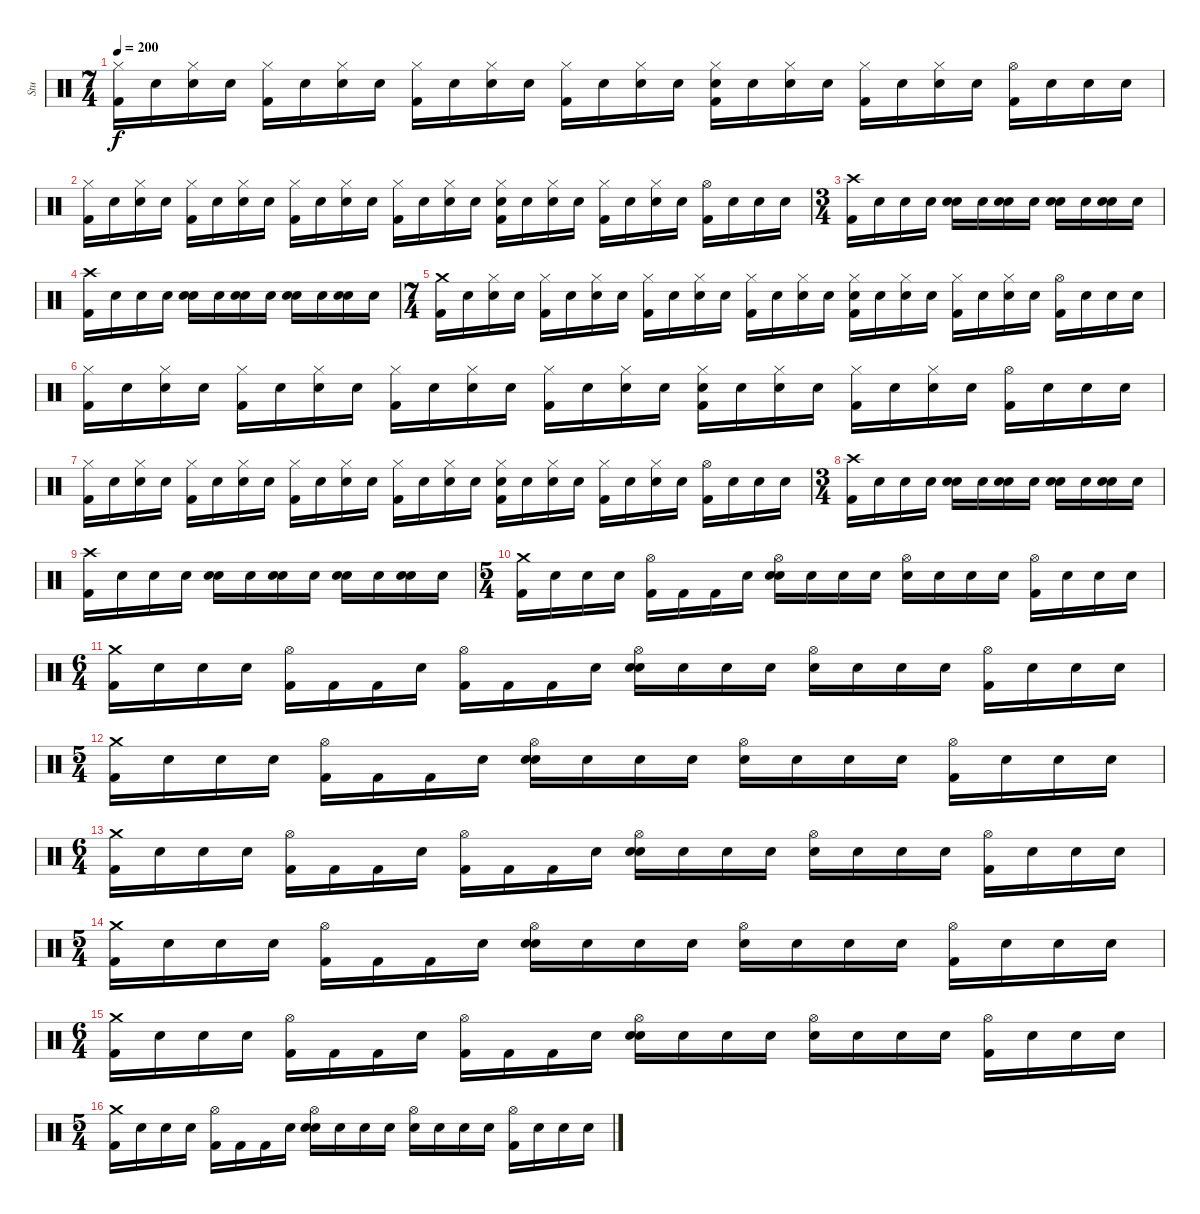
\track ("Stu" "Stu") {instrument percussion}
\staff {score}
\articulation defaults
\ts (7 4)
\tempo 200
\clef neutral
\ks c
("Hi-Hat (closed)" "Kick (hit) 2").16{dy f} "Snare (hit)"{x}.16 ("Hi-Hat (closed)" "Snare (hit)"{x}).16 "Snare (hit)"{x}.16 ("Hi-Hat (closed)" "Kick (hit) 2").16 "Snare (hit)"{x}.16 ("Hi-Hat (closed)" "Snare (hit)"{x}).16 "Snare (hit)"{x}.16 ("Hi-Hat (closed)" "Kick (hit) 2").16 "Snare (hit)"{x}.16 ("Hi-Hat (closed)" "Snare (hit)"{x}).16 "Snare (hit)"{x}.16 ("Hi-Hat (closed)" "Kick (hit) 2").16 "Snare (hit)"{x}.16 ("Hi-Hat (closed)" "Snare (hit)"{x}).16 "Snare (hit)"{x}.16 ("Hi-Hat (closed)" "Electric Snare (hit)" "Kick (hit) 2").16 "Snare (hit)"{x}.16 ("Hi-Hat (closed)" "Snare (hit)"{x}).16 "Snare (hit)"{x}.16 ("Hi-Hat (closed)" "Kick (hit) 2").16 "Snare (hit)"{x}.16 ("Hi-Hat (closed)" "Snare (hit)"{x}).16 "Snare (hit)"{x}.16 ("Hi-Hat (open)" "Kick (hit) 2").16 "Snare (hit)"{x}.16 "Snare (hit)"{x}.16 "Snare (hit)"{x}.16 |
("Hi-Hat (closed)" "Kick (hit) 2").16 "Snare (hit)"{x}.16 ("Hi-Hat (closed)" "Snare (hit)"{x}).16 "Snare (hit)"{x}.16 ("Hi-Hat (closed)" "Kick (hit) 2").16 "Snare (hit)"{x}.16 ("Hi-Hat (closed)" "Snare (hit)"{x}).16 "Snare (hit)"{x}.16 ("Hi-Hat (closed)" "Kick (hit) 2").16 "Snare (hit)"{x}.16 ("Hi-Hat (closed)" "Snare (hit)"{x}).16 "Snare (hit)"{x}.16 ("Hi-Hat (closed)" "Kick (hit) 2").16 "Snare (hit)"{x}.16 ("Hi-Hat (closed)" "Snare (hit)"{x}).16 "Snare (hit)"{x}.16 ("Hi-Hat (closed)" "Electric Snare (hit)" "Kick (hit) 2").16 "Snare (hit)"{x}.16 ("Hi-Hat (closed)" "Snare (hit)"{x}).16 "Snare (hit)"{x}.16 ("Hi-Hat (closed)" "Kick (hit) 2").16 "Snare (hit)"{x}.16 ("Hi-Hat (closed)" "Snare (hit)"{x}).16 "Snare (hit)"{x}.16 ("Hi-Hat (open)" "Kick (hit) 2").16 "Snare (hit)"{x}.16 "Snare (hit)"{x}.16 "Snare (hit)"{x}.16 |
\ts (3 4)
("Crash high (hit)" "Kick (hit) 2").16 "Snare (hit)"{x}.16 "Snare (hit)"{x}.16 "Snare (hit)"{x}.16 ("Electric Snare (hit)" "Snare (hit)"{x}).16 "Snare (hit)"{x}.16 ("Electric Snare (hit)" "Snare (hit)"{x}).16 "Snare (hit)"{x}.16 ("Electric Snare (hit)" "Snare (hit)"{x}).16 "Snare (hit)"{x}.16 ("Electric Snare (hit)" "Snare (hit)"{x}).16 "Snare (hit)"{x}.16 |
("Crash high (hit)" "Kick (hit) 2").16 "Snare (hit)"{x}.16 "Snare (hit)"{x}.16 "Snare (hit)"{x}.16 ("Electric Snare (hit)" "Snare (hit)"{x}).16 "Snare (hit)"{x}.16 ("Electric Snare (hit)" "Snare (hit)"{x}).16 "Snare (hit)"{x}.16 ("Electric Snare (hit)" "Snare (hit)"{x}).16 "Snare (hit)"{x}.16 ("Electric Snare (hit)" "Snare (hit)"{x}).16 "Snare (hit)"{x}.16 |
\ts (7 4)
("Crash medium (hit)" "Kick (hit) 2").16 "Snare (hit)"{x}.16 ("Hi-Hat (closed)" "Snare (hit)"{x}).16 "Snare (hit)"{x}.16 ("Hi-Hat (closed)" "Kick (hit) 2").16 "Snare (hit)"{x}.16 ("Hi-Hat (closed)" "Snare (hit)"{x}).16 "Snare (hit)"{x}.16 ("Hi-Hat (closed)" "Kick (hit) 2").16 "Snare (hit)"{x}.16 ("Hi-Hat (closed)" "Snare (hit)"{x}).16 "Snare (hit)"{x}.16 ("Hi-Hat (closed)" "Kick (hit) 2").16 "Snare (hit)"{x}.16 ("Hi-Hat (closed)" "Snare (hit)"{x}).16 "Snare (hit)"{x}.16 ("Hi-Hat (closed)" "Electric Snare (hit)" "Kick (hit) 2").16 "Snare (hit)"{x}.16 ("Hi-Hat (closed)" "Snare (hit)"{x}).16 "Snare (hit)"{x}.16 ("Hi-Hat (closed)" "Kick (hit) 2").16 "Snare (hit)"{x}.16 ("Hi-Hat (closed)" "Snare (hit)"{x}).16 "Snare (hit)"{x}.16 ("Hi-Hat (open)" "Kick (hit) 2").16 "Snare (hit)"{x}.16 "Snare (hit)"{x}.16 "Snare (hit)"{x}.16 |
("Hi-Hat (closed)" "Kick (hit) 2").16 "Snare (hit)"{x}.16 ("Hi-Hat (closed)" "Snare (hit)"{x}).16 "Snare (hit)"{x}.16 ("Hi-Hat (closed)" "Kick (hit) 2").16 "Snare (hit)"{x}.16 ("Hi-Hat (closed)" "Snare (hit)"{x}).16 "Snare (hit)"{x}.16 ("Hi-Hat (closed)" "Kick (hit) 2").16 "Snare (hit)"{x}.16 ("Hi-Hat (closed)" "Snare (hit)"{x}).16 "Snare (hit)"{x}.16 ("Hi-Hat (closed)" "Kick (hit) 2").16 "Snare (hit)"{x}.16 ("Hi-Hat (closed)" "Snare (hit)"{x}).16 "Snare (hit)"{x}.16 ("Hi-Hat (closed)" "Electric Snare (hit)" "Kick (hit) 2").16 "Snare (hit)"{x}.16 ("Hi-Hat (closed)" "Snare (hit)"{x}).16 "Snare (hit)"{x}.16 ("Hi-Hat (closed)" "Kick (hit) 2").16 "Snare (hit)"{x}.16 ("Hi-Hat (closed)" "Snare (hit)"{x}).16 "Snare (hit)"{x}.16 ("Hi-Hat (open)" "Kick (hit) 2").16 "Snare (hit)"{x}.16 "Snare (hit)"{x}.16 "Snare (hit)"{x}.16 |
("Hi-Hat (closed)" "Kick (hit) 2").16 "Snare (hit)"{x}.16 ("Hi-Hat (closed)" "Snare (hit)"{x}).16 "Snare (hit)"{x}.16 ("Hi-Hat (closed)" "Kick (hit) 2").16 "Snare (hit)"{x}.16 ("Hi-Hat (closed)" "Snare (hit)"{x}).16 "Snare (hit)"{x}.16 ("Hi-Hat (closed)" "Kick (hit) 2").16 "Snare (hit)"{x}.16 ("Hi-Hat (closed)" "Snare (hit)"{x}).16 "Snare (hit)"{x}.16 ("Hi-Hat (closed)" "Kick (hit) 2").16 "Snare (hit)"{x}.16 ("Hi-Hat (closed)" "Snare (hit)"{x}).16 "Snare (hit)"{x}.16 ("Hi-Hat (closed)" "Electric Snare (hit)" "Kick (hit) 2").16 "Snare (hit)"{x}.16 ("Hi-Hat (closed)" "Snare (hit)"{x}).16 "Snare (hit)"{x}.16 ("Hi-Hat (closed)" "Kick (hit) 2").16 "Snare (hit)"{x}.16 ("Hi-Hat (closed)" "Snare (hit)"{x}).16 "Snare (hit)"{x}.16 ("Hi-Hat (open)" "Kick (hit) 2").16 "Snare (hit)"{x}.16 "Snare (hit)"{x}.16 "Snare (hit)"{x}.16 |
\ts (3 4)
("Crash high (hit)" "Kick (hit) 2").16 "Snare (hit)"{x}.16 "Snare (hit)"{x}.16 "Snare (hit)"{x}.16 ("Electric Snare (hit)" "Snare (hit)"{x}).16 "Snare (hit)"{x}.16 ("Electric Snare (hit)" "Snare (hit)"{x}).16 "Snare (hit)"{x}.16 ("Electric Snare (hit)" "Snare (hit)"{x}).16 "Snare (hit)"{x}.16 ("Electric Snare (hit)" "Snare (hit)"{x}).16 "Snare (hit)"{x}.16 |
("Crash high (hit)" "Kick (hit) 2").16 "Snare (hit)"{x}.16 "Snare (hit)"{x}.16 "Snare (hit)"{x}.16 ("Electric Snare (hit)" "Snare (hit)"{x}).16 "Snare (hit)"{x}.16 ("Electric Snare (hit)" "Snare (hit)"{x}).16 "Snare (hit)"{x}.16 ("Electric Snare (hit)" "Snare (hit)"{x}).16 "Snare (hit)"{x}.16 ("Electric Snare (hit)" "Snare (hit)"{x}).16 "Snare (hit)"{x}.16 |
\ts (5 4)
("Crash medium (hit)" "Kick (hit) 2").16 "Snare (hit)"{x}.16 "Snare (hit)"{x}.16 "Snare (hit)"{x}.16 ("Hi-Hat (open)" "Kick (hit) 2").16 "Kick (hit) 2".16 "Kick (hit) 2".16 "Snare (hit)"{x}.16 ("Hi-Hat (open)" "Electric Snare (hit)" "Snare (hit)"{x}).16 "Snare (hit)"{x}.16 "Snare (hit)"{x}.16 "Snare (hit)"{x}.16 ("Hi-Hat (open)" "Snare (hit)"{x}).16 "Snare (hit)"{x}.16 "Snare (hit)"{x}.16 "Snare (hit)"{x}.16 ("Hi-Hat (open)" "Kick (hit) 2").16 "Snare (hit)"{x}.16 "Snare (hit)"{x}.16 "Snare (hit)"{x}.16 |
\ts (6 4)
("Crash medium (hit)" "Kick (hit) 2").16 "Snare (hit)"{x}.16 "Snare (hit)"{x}.16 "Snare (hit)"{x}.16 ("Hi-Hat (open)" "Kick (hit) 2").16 "Kick (hit) 2".16 "Kick (hit) 2".16 "Snare (hit)"{x}.16 ("Hi-Hat (open)" "Kick (hit) 2").16 "Kick (hit) 2".16 "Kick (hit) 2".16 "Snare (hit)"{x}.16 ("Hi-Hat (open)" "Electric Snare (hit)" "Snare (hit)"{x}).16 "Snare (hit)"{x}.16 "Snare (hit)"{x}.16 "Snare (hit)"{x}.16 ("Hi-Hat (open)" "Snare (hit)"{x}).16 "Snare (hit)"{x}.16 "Snare (hit)"{x}.16 "Snare (hit)"{x}.16 ("Hi-Hat (open)" "Kick (hit) 2").16 "Snare (hit)"{x}.16 "Snare (hit)"{x}.16 "Snare (hit)"{x}.16 |
\ts (5 4)
("Crash medium (hit)" "Kick (hit) 2").16 "Snare (hit)"{x}.16 "Snare (hit)"{x}.16 "Snare (hit)"{x}.16 ("Hi-Hat (open)" "Kick (hit) 2").16 "Kick (hit) 2".16 "Kick (hit) 2".16 "Snare (hit)"{x}.16 ("Hi-Hat (open)" "Electric Snare (hit)" "Snare (hit)"{x}).16 "Snare (hit)"{x}.16 "Snare (hit)"{x}.16 "Snare (hit)"{x}.16 ("Hi-Hat (open)" "Snare (hit)"{x}).16 "Snare (hit)"{x}.16 "Snare (hit)"{x}.16 "Snare (hit)"{x}.16 ("Hi-Hat (open)" "Kick (hit) 2").16 "Snare (hit)"{x}.16 "Snare (hit)"{x}.16 "Snare (hit)"{x}.16 |
\ts (6 4)
("Crash medium (hit)" "Kick (hit) 2").16 "Snare (hit)"{x}.16 "Snare (hit)"{x}.16 "Snare (hit)"{x}.16 ("Hi-Hat (open)" "Kick (hit) 2").16 "Kick (hit) 2".16 "Kick (hit) 2".16 "Snare (hit)"{x}.16 ("Hi-Hat (open)" "Kick (hit) 2").16 "Kick (hit) 2".16 "Kick (hit) 2".16 "Snare (hit)"{x}.16 ("Hi-Hat (open)" "Electric Snare (hit)" "Snare (hit)"{x}).16 "Snare (hit)"{x}.16 "Snare (hit)"{x}.16 "Snare (hit)"{x}.16 ("Hi-Hat (open)" "Snare (hit)"{x}).16 "Snare (hit)"{x}.16 "Snare (hit)"{x}.16 "Snare (hit)"{x}.16 ("Hi-Hat (open)" "Kick (hit) 2").16 "Snare (hit)"{x}.16 "Snare (hit)"{x}.16 "Snare (hit)"{x}.16 |
\ts (5 4)
("Crash medium (hit)" "Kick (hit) 2").16 "Snare (hit)"{x}.16 "Snare (hit)"{x}.16 "Snare (hit)"{x}.16 ("Hi-Hat (open)" "Kick (hit) 2").16 "Kick (hit) 2".16 "Kick (hit) 2".16 "Snare (hit)"{x}.16 ("Hi-Hat (open)" "Electric Snare (hit)" "Snare (hit)"{x}).16 "Snare (hit)"{x}.16 "Snare (hit)"{x}.16 "Snare (hit)"{x}.16 ("Hi-Hat (open)" "Snare (hit)"{x}).16 "Snare (hit)"{x}.16 "Snare (hit)"{x}.16 "Snare (hit)"{x}.16 ("Hi-Hat (open)" "Kick (hit) 2").16 "Snare (hit)"{x}.16 "Snare (hit)"{x}.16 "Snare (hit)"{x}.16 |
\ts (6 4)
("Crash medium (hit)" "Kick (hit) 2").16 "Snare (hit)"{x}.16 "Snare (hit)"{x}.16 "Snare (hit)"{x}.16 ("Hi-Hat (open)" "Kick (hit) 2").16 "Kick (hit) 2".16 "Kick (hit) 2".16 "Snare (hit)"{x}.16 ("Hi-Hat (open)" "Kick (hit) 2").16 "Kick (hit) 2".16 "Kick (hit) 2".16 "Snare (hit)"{x}.16 ("Hi-Hat (open)" "Electric Snare (hit)" "Snare (hit)"{x}).16 "Snare (hit)"{x}.16 "Snare (hit)"{x}.16 "Snare (hit)"{x}.16 ("Hi-Hat (open)" "Snare (hit)"{x}).16 "Snare (hit)"{x}.16 "Snare (hit)"{x}.16 "Snare (hit)"{x}.16 ("Hi-Hat (open)" "Kick (hit) 2").16 "Snare (hit)"{x}.16 "Snare (hit)"{x}.16 "Snare (hit)"{x}.16 |
\ts (5 4)
("Crash medium (hit)" "Kick (hit) 2").16 "Snare (hit)"{x}.16 "Snare (hit)"{x}.16 "Snare (hit)"{x}.16 ("Hi-Hat (open)" "Kick (hit) 2").16 "Kick (hit) 2".16 "Kick (hit) 2".16 "Snare (hit)"{x}.16 ("Hi-Hat (open)" "Electric Snare (hit)" "Snare (hit)"{x}).16 "Snare (hit)"{x}.16 "Snare (hit)"{x}.16 "Snare (hit)"{x}.16 ("Hi-Hat (open)" "Snare (hit)"{x}).16 "Snare (hit)"{x}.16 "Snare (hit)"{x}.16 "Snare (hit)"{x}.16 ("Hi-Hat (open)" "Kick (hit) 2").16 "Snare (hit)"{x}.16 "Snare (hit)"{x}.16 "Snare (hit)"{x}.16
